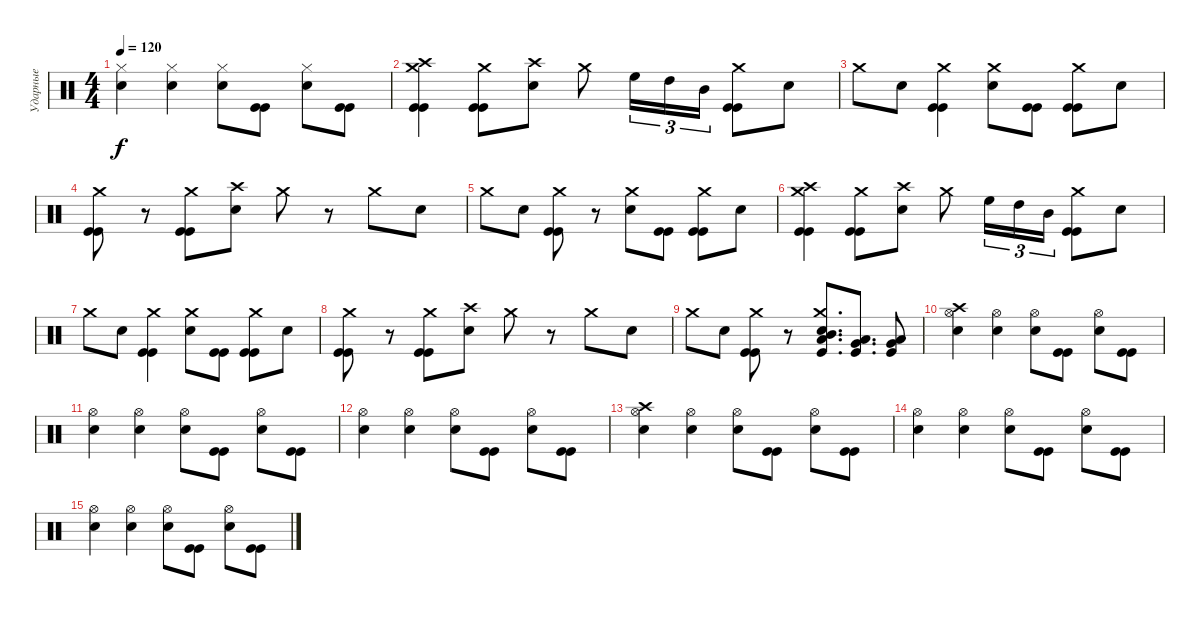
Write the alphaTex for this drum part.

\track ("Ударные" "Ударные") {instrument percussion}
\staff {score}
\articulation defaults
\ts (4 4)
\tempo 120
\clef neutral
\ks c
("Hi-Hat (closed)" "Electric Snare (hit)").4{dy f} ("Hi-Hat (closed)" "Electric Snare (hit)").4 ("Hi-Hat (closed)" "Electric Snare (hit)").8 ("Kick (hit)" "Kick (hit)").8 ("Hi-Hat (closed)" "Electric Snare (hit)").8 ("Kick (hit)" "Kick (hit)").8 |
("Crash high (hit)" "Crash medium (hit)" "Kick (hit)" "Kick (hit)").4 ("Crash medium (hit)" "Kick (hit)" "Kick (hit)").8 ("Crash high (hit)" "Electric Snare (hit)").8 "Crash medium (hit)".8 "High Floor Tom (hit)".16{tu (3 2)} "High Tom (hit)".16{tu (3 2)} "Mid Tom (hit)".16{tu (3 2)} ("Crash medium (hit)" "Kick (hit)" "Kick (hit)").8 "Electric Snare (hit)".8 |
"Crash medium (hit)".8 "Electric Snare (hit)".8 ("Crash medium (hit)" "Kick (hit)" "Kick (hit)").4 ("Crash medium (hit)" "Electric Snare (hit)").8 ("Kick (hit)" "Kick (hit)").8 ("Crash medium (hit)" "Kick (hit)" "Kick (hit)").8 "Electric Snare (hit)".8 |
("Crash medium (hit)" "Kick (hit)" "Kick (hit)").8 r.8 ("Crash medium (hit)" "Kick (hit)" "Kick (hit)").8 ("Crash high (hit)" "Electric Snare (hit)").8 "Crash medium (hit)".8 r.8 "Crash medium (hit)".8 "Electric Snare (hit)".8 |
"Crash medium (hit)".8 "Electric Snare (hit)".8 ("Crash medium (hit)" "Kick (hit)" "Kick (hit)").8 r.8 ("Crash medium (hit)" "Electric Snare (hit)").8 ("Kick (hit)" "Kick (hit)").8 ("Crash medium (hit)" "Kick (hit)" "Kick (hit)").8 "Electric Snare (hit)".8 |
("Crash high (hit)" "Crash medium (hit)" "Kick (hit)" "Kick (hit)").4 ("Crash medium (hit)" "Kick (hit)" "Kick (hit)").8 ("Crash high (hit)" "Electric Snare (hit)").8 "Crash medium (hit)".8 "High Floor Tom (hit)".16{tu (3 2)} "High Tom (hit)".16{tu (3 2)} "Mid Tom (hit)".16{tu (3 2)} ("Crash medium (hit)" "Kick (hit)" "Kick (hit)").8 "Electric Snare (hit)".8 |
"Crash medium (hit)".8 "Electric Snare (hit)".8 ("Crash medium (hit)" "Kick (hit)" "Kick (hit)").4 ("Crash medium (hit)" "Electric Snare (hit)").8 ("Kick (hit)" "Kick (hit)").8 ("Crash medium (hit)" "Kick (hit)" "Kick (hit)").8 "Electric Snare (hit)".8 |
("Crash medium (hit)" "Kick (hit)" "Kick (hit)").8 r.8 ("Crash medium (hit)" "Kick (hit)" "Kick (hit)").8 ("Crash high (hit)" "Electric Snare (hit)").8 "Crash medium (hit)".8 r.8 "Crash medium (hit)".8 "Electric Snare (hit)".8 |
"Crash medium (hit)".8 "Electric Snare (hit)".8 ("Crash medium (hit)" "Kick (hit)" "Kick (hit)").8 r.8 ("Crash medium (hit)" "Electric Snare (hit)" "Low Tom (hit)" "Mid Tom (hit)" "Kick (hit)").8{d} ("Very Low Tom (hit)" "Low Tom (hit)" "Kick (hit)").8{d} ("Very Low Tom (hit)" "Low Floor Tom (hit)" "Kick (hit)").8 |
("Crash high (hit)" "Hi-Hat (open)" "Electric Snare (hit)").4 ("Hi-Hat (open)" "Electric Snare (hit)").4 ("Hi-Hat (open)" "Electric Snare (hit)").8 ("Kick (hit)" "Kick (hit)").8 ("Hi-Hat (open)" "Electric Snare (hit)").8 ("Kick (hit)" "Kick (hit)").8 |
("Hi-Hat (open)" "Electric Snare (hit)").4 ("Hi-Hat (open)" "Electric Snare (hit)").4 ("Hi-Hat (open)" "Electric Snare (hit)").8 ("Kick (hit)" "Kick (hit)").8 ("Hi-Hat (open)" "Electric Snare (hit)").8 ("Kick (hit)" "Kick (hit)").8 |
("Hi-Hat (open)" "Electric Snare (hit)").4 ("Hi-Hat (open)" "Electric Snare (hit)").4 ("Hi-Hat (open)" "Electric Snare (hit)").8 ("Kick (hit)" "Kick (hit)").8 ("Hi-Hat (open)" "Electric Snare (hit)").8 ("Kick (hit)" "Kick (hit)").8 |
("Crash high (hit)" "Hi-Hat (open)" "Electric Snare (hit)").4 ("Hi-Hat (open)" "Electric Snare (hit)").4 ("Hi-Hat (open)" "Electric Snare (hit)").8 ("Kick (hit)" "Kick (hit)").8 ("Hi-Hat (open)" "Electric Snare (hit)").8 ("Kick (hit)" "Kick (hit)").8 |
("Hi-Hat (open)" "Electric Snare (hit)").4 ("Hi-Hat (open)" "Electric Snare (hit)").4 ("Hi-Hat (open)" "Electric Snare (hit)").8 ("Kick (hit)" "Kick (hit)").8 ("Hi-Hat (open)" "Electric Snare (hit)").8 ("Kick (hit)" "Kick (hit)").8 |
("Hi-Hat (open)" "Electric Snare (hit)").4 ("Hi-Hat (open)" "Electric Snare (hit)").4 ("Hi-Hat (open)" "Electric Snare (hit)").8 ("Kick (hit)" "Kick (hit)").8 ("Hi-Hat (open)" "Electric Snare (hit)").8 ("Kick (hit)" "Kick (hit)").8
